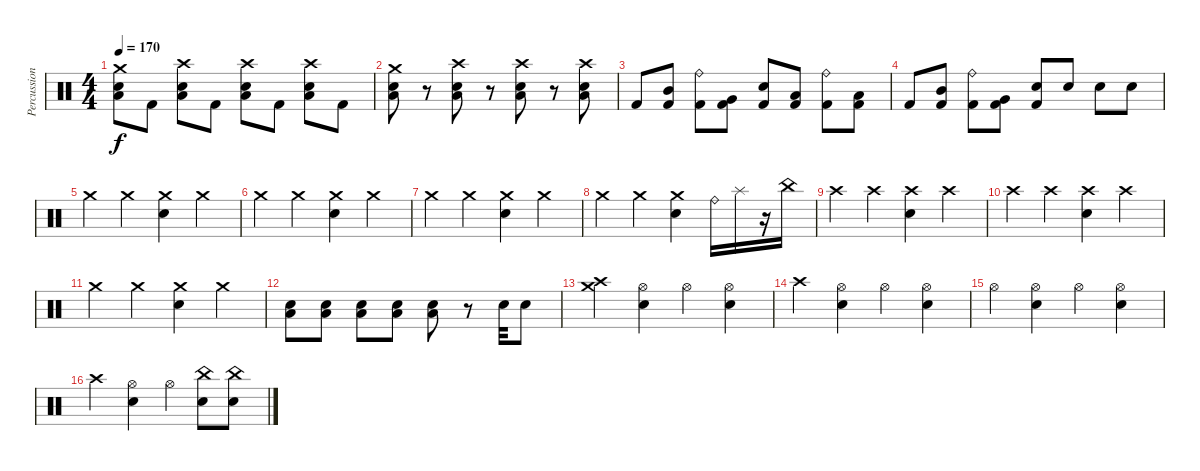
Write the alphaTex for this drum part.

\track ("Percussion" "Percussion") {solo instrument percussion}
\staff {score}
\articulation defaults
\ts (4 4)
\tempo 170
\clef neutral
\ks c
("Electric Snare (hit)" "Low Floor Tom (hit)" "Crash medium (hit)").8{dy f} "Kick (hit) 2".8 ("Electric Snare (hit)" "Low Floor Tom (hit)" "Crash high (hit)").8 "Kick (hit) 2".8 ("Electric Snare (hit)" "Low Floor Tom (hit)" "Crash high (hit)").8 "Kick (hit) 2".8 ("Electric Snare (hit)" "Low Floor Tom (hit)" "Crash high (hit)").8 "Kick (hit) 2".8 |
("Electric Snare (hit)" "Low Floor Tom (hit)" "Crash medium (hit)").8 r.8 ("Electric Snare (hit)" "Low Floor Tom (hit)" "Crash high (hit)").8 r.8 ("Electric Snare (hit)" "Low Floor Tom (hit)" "Crash high (hit)").8 r.8 ("Electric Snare (hit)" "Low Floor Tom (hit)" "Crash high (hit)").8 |
"Kick (hit) 2".8 ("Kick (hit) 2" "Mid Tom (hit)").8 ("Kick (hit) 2" "Ride (bell)").8 ("Kick (hit) 2" "Very Low Tom (hit)").8 ("Kick (hit) 2" "Electric Snare (hit)").8 ("Kick (hit) 2" "Low Tom (hit)").8 ("Kick (hit) 2" "Ride (bell)").8 ("Kick (hit) 2" "Low Floor Tom (hit)").8 |
"Kick (hit) 2".8 ("Kick (hit) 2" "Mid Tom (hit)").8 ("Kick (hit) 2" "Ride (bell)").8 ("Kick (hit) 2" "Very Low Tom (hit)").8 ("Kick (hit) 2" "Electric Snare (hit)").8 "Electric Snare (hit)".8 "Electric Snare (hit)".8 "Electric Snare (hit)".8 |
"Crash medium (hit)".4 "Crash medium (hit)".4 ("Crash medium (hit)" "Electric Snare (hit)").4 "Crash medium (hit)".4 |
"Crash medium (hit)".4 "Crash medium (hit)".4 ("Crash medium (hit)" "Electric Snare (hit)").4 "Crash medium (hit)".4 |
"Crash medium (hit)".4 "Crash medium (hit)".4 ("Crash medium (hit)" "Electric Snare (hit)").4 "Crash medium (hit)".4 |
"Crash medium (hit)".4 "Crash medium (hit)".4 ("Crash medium (hit)" "Electric Snare (hit)").4 "Ride (bell)".16 "Splash (hit)".16 r.16 "China (hit)".16 |
"Crash high (hit)".4 "Crash high (hit)".4 ("Crash high (hit)" "Electric Snare (hit)").4 "Crash high (hit)".4 |
"Crash high (hit)".4 "Crash high (hit)".4 ("Crash high (hit)" "Electric Snare (hit)").4 "Crash high (hit)".4 |
"Crash medium (hit)".4 "Crash medium (hit)".4 ("Crash medium (hit)" "Electric Snare (hit)").4 "Crash medium (hit)".4 |
("Low Floor Tom (hit)" "Electric Snare (hit)").8 ("Low Floor Tom (hit)" "Electric Snare (hit)").8 ("Low Floor Tom (hit)" "Electric Snare (hit)").8 ("Low Floor Tom (hit)" "Electric Snare (hit)").8 ("Low Floor Tom (hit)" "Electric Snare (hit)").8 r.8 "Electric Snare (hit)".32 "Electric Snare (hit)".8 |
("Crash high (hit)" "Crash medium (hit)").4 ("Hi-Hat (open)" "Electric Snare (hit)").4 "Hi-Hat (open)".4 ("Hi-Hat (open)" "Electric Snare (hit)").4 |
"Crash high (hit)".4 ("Hi-Hat (open)" "Electric Snare (hit)").4 "Hi-Hat (open)".4 ("Hi-Hat (open)" "Electric Snare (hit)").4 |
"Hi-Hat (open)".4 ("Hi-Hat (open)" "Electric Snare (hit)").4 "Hi-Hat (open)".4 ("Hi-Hat (open)" "Electric Snare (hit)").4 |
"Crash high (hit)".4 ("Hi-Hat (open)" "Electric Snare (hit)").4 "Hi-Hat (open)".4 ("China (hit)" "Electric Snare (hit)").8 ("Electric Snare (hit)" "China (hit)").8
